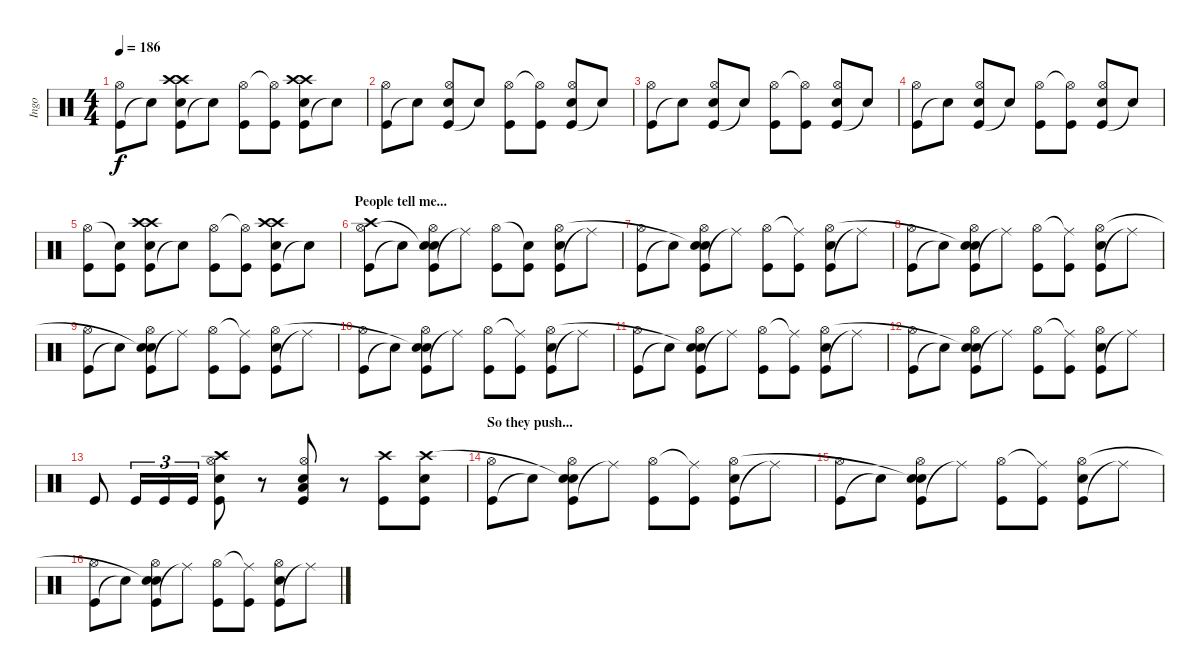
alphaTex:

\track ("Ingo" "Ingo") {instrument percussion}
\staff {score}
\articulation defaults
\ts (4 4)
\tempo 186
\clef neutral
\ks c
("Kick (hit)" "Hi-Hat (open)").8{dy f} "Snare (hit)"{t}.8 ("Kick (hit)" "Snare (hit) 2" "Crash high (hit)" "Crash high (hit)").8 "Snare (hit)"{t}.8 ("Kick (hit)" "Hi-Hat (open)").8 ("Kick (hit)" "Hi-Hat (open)"{t}).8 ("Kick (hit)" "Snare (hit) 2" "Crash high (hit)" "Crash high (hit)").8 "Snare (hit)"{t}.8 |
("Kick (hit)" "Hi-Hat (open)").8 "Snare (hit)"{t}.8 ("Kick (hit)" "Snare (hit) 2" "Hi-Hat (open)").8 "Snare (hit)"{t}.8 ("Kick (hit)" "Hi-Hat (open)").8 ("Kick (hit)" "Hi-Hat (open)"{t}).8 ("Kick (hit)" "Snare (hit) 2" "Hi-Hat (open)").8 "Snare (hit)"{t}.8 |
("Kick (hit)" "Hi-Hat (open)").8 "Snare (hit)"{t}.8 ("Kick (hit)" "Snare (hit) 2" "Hi-Hat (open)").8 "Snare (hit)"{t}.8 ("Kick (hit)" "Hi-Hat (open)").8 ("Kick (hit)" "Hi-Hat (open)"{t}).8 ("Kick (hit)" "Snare (hit) 2" "Hi-Hat (open)").8 "Snare (hit)"{t}.8 |
("Kick (hit)" "Hi-Hat (open)").8 "Snare (hit)"{t}.8 ("Kick (hit)" "Snare (hit) 2" "Hi-Hat (open)").8 "Snare (hit)"{t}.8 ("Kick (hit)" "Hi-Hat (open)").8 ("Kick (hit)" "Hi-Hat (open)"{t}).8 ("Kick (hit)" "Snare (hit) 2" "Hi-Hat (open)").8 "Snare (hit)"{t}.8 |
("Kick (hit)" "Hi-Hat (open)").8 ("Kick (hit)" "Snare (hit)"{t}).8 ("Kick (hit)" "Snare (hit) 2" "Crash high (hit)" "Crash high (hit)").8 "Snare (hit)"{t}.8 ("Kick (hit)" "Hi-Hat (open)").8 ("Kick (hit)" "Hi-Hat (open)"{t}).8 ("Kick (hit)" "Snare (hit) 2" "Crash high (hit)" "Crash high (hit)").8 "Snare (hit)"{t}.8 |
\section ("" "People tell me...")
("Kick (hit)" "Crash high (hit)" "Hi-Hat (open)").8 "Snare (hit)"{t}.8 ("Kick (hit)" "Snare (hit) 2" "Snare (hit)"{t} "Hi-Hat (open)").8 "Ride (middle)"{t}.8 ("Kick (hit)" "Hi-Hat (open)").8 ("Kick (hit)" "Snare (hit)"{t}).8 ("Kick (hit)" "Snare (hit) 2" "Hi-Hat (open)").8 "Ride (middle)"{t}.8 |
("Kick (hit)" "Hi-Hat (open)").8 "Snare (hit)"{t}.8 ("Kick (hit)" "Snare (hit) 2" "Snare (hit)"{t} "Hi-Hat (open)").8 "Ride (middle)"{t}.8 ("Kick (hit)" "Hi-Hat (open)").8 ("Kick (hit)" "Ride (middle)"{t}).8 ("Kick (hit)" "Snare (hit) 2" "Hi-Hat (open)").8 "Ride (middle)"{t}.8 |
("Kick (hit)" "Hi-Hat (open)").8 "Snare (hit)"{t}.8 ("Kick (hit)" "Snare (hit) 2" "Snare (hit)"{t} "Hi-Hat (open)").8 "Ride (middle)"{t}.8 ("Kick (hit)" "Hi-Hat (open)").8 ("Kick (hit)" "Ride (middle)"{t}).8 ("Kick (hit)" "Snare (hit) 2" "Hi-Hat (open)").8 "Ride (middle)"{t}.8 |
("Kick (hit)" "Hi-Hat (open)").8 "Snare (hit)"{t}.8 ("Kick (hit)" "Snare (hit) 2" "Snare (hit)"{t} "Hi-Hat (open)").8 "Ride (middle)"{t}.8 ("Kick (hit)" "Hi-Hat (open)").8 ("Kick (hit)" "Ride (middle)"{t}).8 ("Kick (hit)" "Snare (hit) 2" "Hi-Hat (open)").8 "Ride (middle)"{t}.8 |
("Kick (hit)" "Hi-Hat (open)").8 "Snare (hit)"{t}.8 ("Kick (hit)" "Snare (hit) 2" "Snare (hit)"{t} "Hi-Hat (open)").8 "Ride (middle)"{t}.8 ("Kick (hit)" "Hi-Hat (open)").8 ("Kick (hit)" "Ride (middle)"{t}).8 ("Kick (hit)" "Snare (hit) 2" "Hi-Hat (open)").8 "Ride (middle)"{t}.8 |
("Kick (hit)" "Hi-Hat (open)").8 "Snare (hit)"{t}.8 ("Kick (hit)" "Snare (hit) 2" "Snare (hit)"{t} "Hi-Hat (open)").8 "Ride (middle)"{t}.8 ("Kick (hit)" "Hi-Hat (open)").8 ("Kick (hit)" "Ride (middle)"{t}).8 ("Kick (hit)" "Snare (hit) 2" "Hi-Hat (open)").8 "Ride (middle)"{t}.8 |
("Kick (hit)" "Hi-Hat (open)").8 "Snare (hit)"{t}.8 ("Kick (hit)" "Snare (hit) 2" "Snare (hit)"{t} "Hi-Hat (open)").8 "Ride (middle)"{t}.8 ("Kick (hit)" "Hi-Hat (open)").8 ("Kick (hit)" "Ride (middle)"{t}).8 ("Kick (hit)" "Snare (hit) 2" "Hi-Hat (open)").8 "Ride (middle)"{t}.8 |
"Kick (hit)".8 "Kick (hit)".16{tu (3 2)} "Kick (hit)".16{tu (3 2)} "Kick (hit)".16{tu (3 2)} ("Kick (hit)" "Snare (hit) 2" "Hi-Hat (open)" "Crash high (hit)").8 r.8 ("Kick (hit)" "Low Tom (hit)" "Snare (hit) 2" "Hi-Hat (open)").8 r.8 ("Kick (hit)" "Crash high (hit)").8 ("Kick (hit)" "Snare (hit) 2" "Crash high (hit)").8 |
\section ("" "So they push...")
("Kick (hit)" "Hi-Hat (open)").8 "Snare (hit)"{t}.8 ("Kick (hit)" "Snare (hit) 2" "Snare (hit)"{t} "Hi-Hat (open)").8 "Ride (middle)"{t}.8 ("Kick (hit)" "Hi-Hat (open)").8 ("Kick (hit)" "Ride (middle)"{t}).8 ("Kick (hit)" "Snare (hit) 2" "Hi-Hat (open)").8 "Ride (middle)"{t}.8 |
("Kick (hit)" "Hi-Hat (open)").8 "Snare (hit)"{t}.8 ("Kick (hit)" "Snare (hit) 2" "Snare (hit)"{t} "Hi-Hat (open)").8 "Ride (middle)"{t}.8 ("Kick (hit)" "Hi-Hat (open)").8 ("Kick (hit)" "Ride (middle)"{t}).8 ("Kick (hit)" "Snare (hit) 2" "Hi-Hat (open)").8 "Ride (middle)"{t}.8 |
("Kick (hit)" "Hi-Hat (open)").8 "Snare (hit)"{t}.8 ("Kick (hit)" "Snare (hit) 2" "Snare (hit)"{t} "Hi-Hat (open)").8 "Ride (middle)"{t}.8 ("Kick (hit)" "Hi-Hat (open)").8 ("Kick (hit)" "Ride (middle)"{t}).8 ("Kick (hit)" "Snare (hit) 2" "Hi-Hat (open)").8 "Ride (middle)"{t}.8
